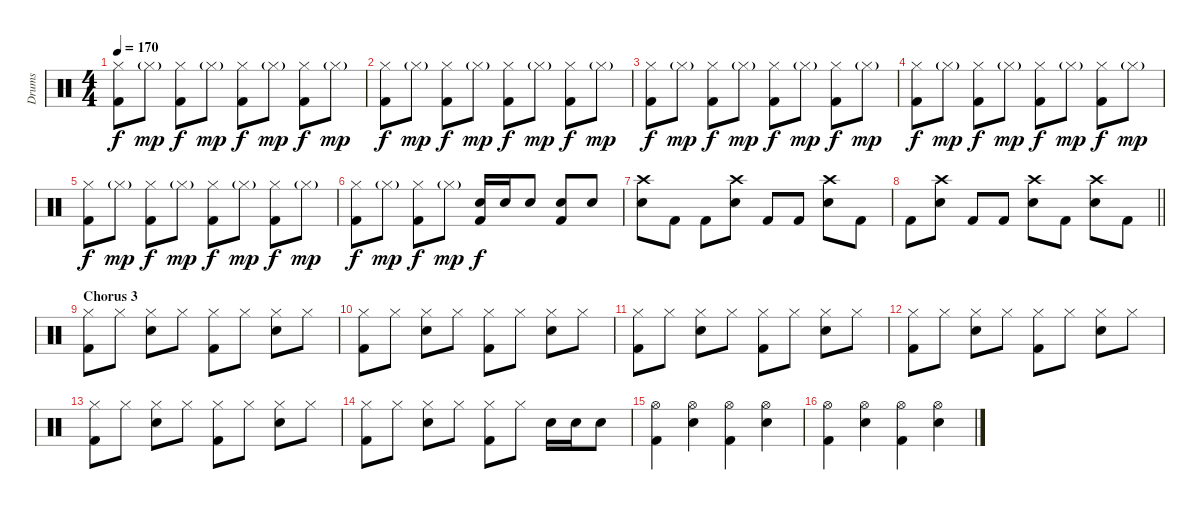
\track ("Drums" "Drums") {instrument percussion}
\staff {score}
\articulation defaults
\ts (4 4)
\tempo 170
\clef neutral
\ks c
("Hi-Hat (closed)" "Kick (hit) 2").8{dy f} "Hi-Hat (closed)"{g}.8{dy mp} ("Hi-Hat (closed)" "Kick (hit) 2").8{dy f} "Hi-Hat (closed)"{g}.8{dy mp} ("Hi-Hat (closed)" "Kick (hit) 2").8{dy f} "Hi-Hat (closed)"{g}.8{dy mp} ("Hi-Hat (closed)" "Kick (hit) 2").8{dy f} "Hi-Hat (closed)"{g}.8{dy mp} |
("Hi-Hat (closed)" "Kick (hit) 2").8{dy f} "Hi-Hat (closed)"{g}.8{dy mp} ("Hi-Hat (closed)" "Kick (hit) 2").8{dy f} "Hi-Hat (closed)"{g}.8{dy mp} ("Hi-Hat (closed)" "Kick (hit) 2").8{dy f} "Hi-Hat (closed)"{g}.8{dy mp} ("Hi-Hat (closed)" "Kick (hit) 2").8{dy f} "Hi-Hat (closed)"{g}.8{dy mp} |
("Hi-Hat (closed)" "Kick (hit) 2").8{dy f} "Hi-Hat (closed)"{g}.8{dy mp} ("Hi-Hat (closed)" "Kick (hit) 2").8{dy f} "Hi-Hat (closed)"{g}.8{dy mp} ("Hi-Hat (closed)" "Kick (hit) 2").8{dy f} "Hi-Hat (closed)"{g}.8{dy mp} ("Hi-Hat (closed)" "Kick (hit) 2").8{dy f} "Hi-Hat (closed)"{g}.8{dy mp} |
("Hi-Hat (closed)" "Kick (hit) 2").8{dy f} "Hi-Hat (closed)"{g}.8{dy mp} ("Hi-Hat (closed)" "Kick (hit) 2").8{dy f} "Hi-Hat (closed)"{g}.8{dy mp} ("Hi-Hat (closed)" "Kick (hit) 2").8{dy f} "Hi-Hat (closed)"{g}.8{dy mp} ("Hi-Hat (closed)" "Kick (hit) 2").8{dy f} "Hi-Hat (closed)"{g}.8{dy mp} |
("Hi-Hat (closed)" "Kick (hit) 2").8{dy f} "Hi-Hat (closed)"{g}.8{dy mp} ("Hi-Hat (closed)" "Kick (hit) 2").8{dy f} "Hi-Hat (closed)"{g}.8{dy mp} ("Hi-Hat (closed)" "Kick (hit) 2").8{dy f} "Hi-Hat (closed)"{g}.8{dy mp} ("Hi-Hat (closed)" "Kick (hit) 2").8{dy f} "Hi-Hat (closed)"{g}.8{dy mp} |
("Hi-Hat (closed)" "Kick (hit) 2").8{dy f} "Hi-Hat (closed)"{g}.8{dy mp} ("Hi-Hat (closed)" "Kick (hit) 2").8{dy f} "Hi-Hat (closed)"{g}.8{dy mp} ("Electric Snare (hit)" "Kick (hit) 2").16{dy f} "Electric Snare (hit)".16 "Electric Snare (hit)".8 ("Electric Snare (hit)" "Kick (hit) 2").8 "Electric Snare (hit)".8 |
("Crash high (hit)" "Electric Snare (hit)").8 "Kick (hit) 2".8 "Kick (hit) 2".8 ("Crash high (hit)" "Electric Snare (hit)").8 "Kick (hit) 2".8 "Kick (hit) 2".8 ("Crash high (hit)" "Electric Snare (hit)").8 "Kick (hit) 2".8 |
\barLineRight lightlight "Kick (hit) 2".8
("Crash high (hit)" "Electric Snare (hit)").8 "Kick (hit) 2".8 "Kick (hit) 2".8 ("Crash high (hit)" "Electric Snare (hit)").8 "Kick (hit) 2".8 ("Crash high (hit)" "Electric Snare (hit)").8 "Kick (hit) 2".8 |
\section ("" "Chorus 3")
("Hi-Hat (closed)" "Kick (hit) 2").8 "Hi-Hat (closed)".8 ("Hi-Hat (closed)" "Electric Snare (hit)").8 "Hi-Hat (closed)".8 ("Hi-Hat (closed)" "Kick (hit) 2").8 "Hi-Hat (closed)".8 ("Hi-Hat (closed)" "Electric Snare (hit)").8 "Hi-Hat (closed)".8 |
("Hi-Hat (closed)" "Kick (hit) 2").8 "Hi-Hat (closed)".8 ("Hi-Hat (closed)" "Electric Snare (hit)").8 "Hi-Hat (closed)".8 ("Hi-Hat (closed)" "Kick (hit) 2").8 "Hi-Hat (closed)".8 ("Hi-Hat (closed)" "Electric Snare (hit)").8 "Hi-Hat (closed)".8 |
("Hi-Hat (closed)" "Kick (hit) 2").8 "Hi-Hat (closed)".8 ("Hi-Hat (closed)" "Electric Snare (hit)").8 "Hi-Hat (closed)".8 ("Hi-Hat (closed)" "Kick (hit) 2").8 "Hi-Hat (closed)".8 ("Hi-Hat (closed)" "Electric Snare (hit)").8 "Hi-Hat (closed)".8 |
("Hi-Hat (closed)" "Kick (hit) 2").8 "Hi-Hat (closed)".8 ("Hi-Hat (closed)" "Electric Snare (hit)").8 "Hi-Hat (closed)".8 ("Hi-Hat (closed)" "Kick (hit) 2").8 "Hi-Hat (closed)".8 ("Hi-Hat (closed)" "Electric Snare (hit)").8 "Hi-Hat (closed)".8 |
("Hi-Hat (closed)" "Kick (hit) 2").8 "Hi-Hat (closed)".8 ("Hi-Hat (closed)" "Electric Snare (hit)").8 "Hi-Hat (closed)".8 ("Hi-Hat (closed)" "Kick (hit) 2").8 "Hi-Hat (closed)".8 ("Hi-Hat (closed)" "Electric Snare (hit)").8 "Hi-Hat (closed)".8 |
("Hi-Hat (closed)" "Kick (hit) 2").8 "Hi-Hat (closed)".8 ("Hi-Hat (closed)" "Electric Snare (hit)").8 "Hi-Hat (closed)".8 ("Hi-Hat (closed)" "Kick (hit) 2").8 "Hi-Hat (closed)".8 "Electric Snare (hit)".16 "Electric Snare (hit)".16 "Electric Snare (hit)".8 |
("Hi-Hat (open)" "Kick (hit) 2").4 ("Hi-Hat (open)" "Electric Snare (hit)").4 ("Hi-Hat (open)" "Kick (hit) 2").4 ("Hi-Hat (open)" "Electric Snare (hit)").4 |
("Hi-Hat (open)" "Kick (hit) 2").4 ("Hi-Hat (open)" "Electric Snare (hit)").4 ("Hi-Hat (open)" "Kick (hit) 2").4 ("Hi-Hat (open)" "Electric Snare (hit)").4
